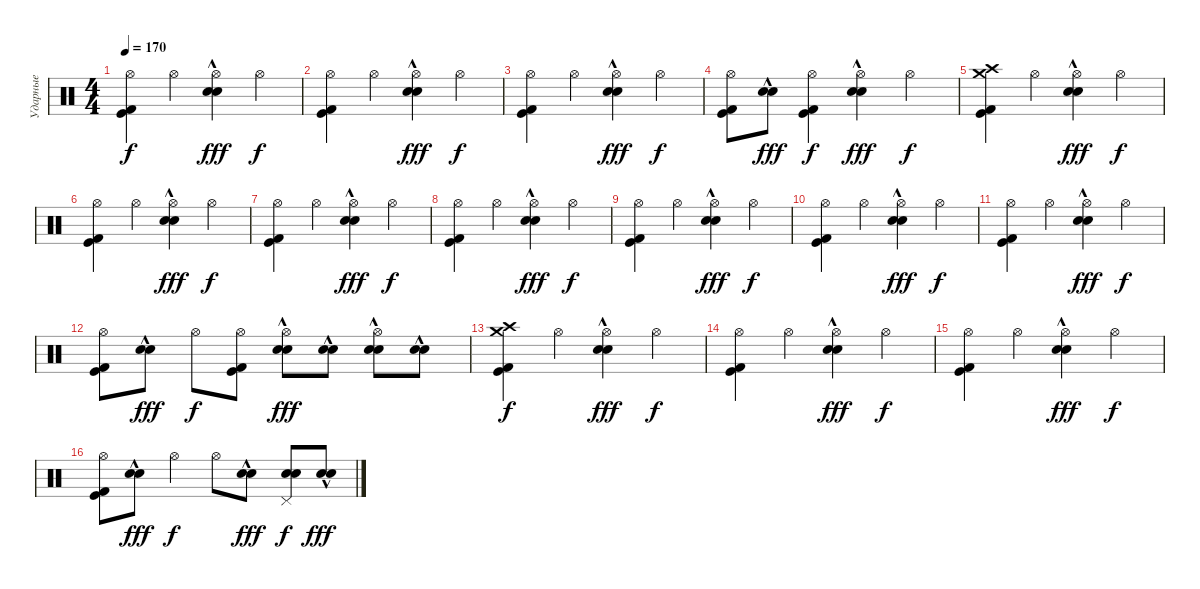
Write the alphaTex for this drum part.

\track ("Ударные" "Ударные") {instrument percussion}
\staff {score}
\articulation defaults
\ts (4 4)
\tempo 170
\clef neutral
\ks c
("Hi-Hat (open)" "Kick (hit)" "Kick (hit) 2").4{dy f} "Hi-Hat (open)".4 ("Hi-Hat (open)" "Snare (hit) 2"{hac} "Electric Snare (hit)"{hac}).4{dy fff} "Hi-Hat (open)".4{dy f} |
("Hi-Hat (open)" "Kick (hit)" "Kick (hit) 2").4 "Hi-Hat (open)".4 ("Hi-Hat (open)" "Snare (hit) 2"{hac} "Electric Snare (hit)"{hac}).4{dy fff} "Hi-Hat (open)".4{dy f} |
("Hi-Hat (open)" "Kick (hit)" "Kick (hit) 2").4 "Hi-Hat (open)".4 ("Hi-Hat (open)" "Snare (hit) 2"{hac} "Electric Snare (hit)"{hac}).4{dy fff} "Hi-Hat (open)".4{dy f} |
("Hi-Hat (open)" "Kick (hit)" "Kick (hit) 2").8 ("Snare (hit) 2"{hac} "Electric Snare (hit)"{hac}).8{dy fff} ("Hi-Hat (open)" "Kick (hit)" "Kick (hit) 2").4{dy f} ("Hi-Hat (open)" "Snare (hit) 2"{hac} "Electric Snare (hit)"{hac}).4{dy fff} "Hi-Hat (open)".4{dy f} |
("Crash high (hit)" "Kick (hit)" "Kick (hit) 2" "Crash medium (hit)").4 "Hi-Hat (open)".4 ("Hi-Hat (open)" "Snare (hit) 2"{hac} "Electric Snare (hit)"{hac}).4{dy fff} "Hi-Hat (open)".4{dy f} |
("Hi-Hat (open)" "Kick (hit)" "Kick (hit) 2").4 "Hi-Hat (open)".4 ("Hi-Hat (open)" "Snare (hit) 2"{hac} "Electric Snare (hit)"{hac}).4{dy fff} "Hi-Hat (open)".4{dy f} |
("Hi-Hat (open)" "Kick (hit)" "Kick (hit) 2").4 "Hi-Hat (open)".4 ("Hi-Hat (open)" "Snare (hit) 2"{hac} "Electric Snare (hit)"{hac}).4{dy fff} "Hi-Hat (open)".4{dy f} |
("Hi-Hat (open)" "Kick (hit)" "Kick (hit) 2").4 "Hi-Hat (open)".4 ("Hi-Hat (open)" "Snare (hit) 2"{hac} "Electric Snare (hit)"{hac}).4{dy fff} "Hi-Hat (open)".4{dy f} |
("Hi-Hat (open)" "Kick (hit)" "Kick (hit) 2").4 "Hi-Hat (open)".4 ("Hi-Hat (open)" "Snare (hit) 2"{hac} "Electric Snare (hit)"{hac}).4{dy fff} "Hi-Hat (open)".4{dy f} |
("Hi-Hat (open)" "Kick (hit)" "Kick (hit) 2").4 "Hi-Hat (open)".4 ("Hi-Hat (open)" "Snare (hit) 2"{hac} "Electric Snare (hit)"{hac}).4{dy fff} "Hi-Hat (open)".4{dy f} |
("Hi-Hat (open)" "Kick (hit)" "Kick (hit) 2").4 "Hi-Hat (open)".4 ("Hi-Hat (open)" "Snare (hit) 2"{hac} "Electric Snare (hit)"{hac}).4{dy fff} "Hi-Hat (open)".4{dy f} |
("Hi-Hat (open)" "Kick (hit)" "Kick (hit) 2").8 ("Snare (hit) 2"{hac} "Electric Snare (hit)"{hac}).8{dy fff} "Hi-Hat (open)".8{dy f} ("Hi-Hat (open)" "Kick (hit)" "Kick (hit) 2").8 ("Hi-Hat (open)" "Snare (hit) 2"{hac} "Electric Snare (hit)"{hac}).8{dy fff} ("Snare (hit) 2"{hac} "Electric Snare (hit)"{hac}).8 ("Hi-Hat (open)" "Snare (hit) 2"{hac} "Electric Snare (hit)"{hac}).8 ("Snare (hit) 2"{hac} "Electric Snare (hit)"{hac}).8 |
("Crash high (hit)" "Kick (hit)" "Kick (hit) 2" "Crash medium (hit)").4{dy f} "Hi-Hat (open)".4 ("Hi-Hat (open)" "Snare (hit) 2"{hac} "Electric Snare (hit)"{hac}).4{dy fff} "Hi-Hat (open)".4{dy f} |
("Hi-Hat (open)" "Kick (hit)" "Kick (hit) 2").4 "Hi-Hat (open)".4 ("Hi-Hat (open)" "Snare (hit) 2"{hac} "Electric Snare (hit)"{hac}).4{dy fff} "Hi-Hat (open)".4{dy f} |
("Hi-Hat (open)" "Kick (hit)" "Kick (hit) 2").4 "Hi-Hat (open)".4 ("Hi-Hat (open)" "Snare (hit) 2"{hac} "Electric Snare (hit)"{hac}).4{dy fff} "Hi-Hat (open)".4{dy f} |
("Hi-Hat (open)" "Kick (hit)" "Kick (hit) 2").8 ("Snare (hit) 2"{hac} "Electric Snare (hit)"{hac}).8{dy fff} "Hi-Hat (open)".4{dy f} "Hi-Hat (open)".8 ("Snare (hit) 2"{hac} "Electric Snare (hit)"{hac}).8{dy fff} ("Pedal Hi-Hat (hit)" "Snare (hit) 2" "Electric Snare (hit)").8{dy f} ("Snare (hit) 2"{hac} "Electric Snare (hit)"{hac}).8{dy fff}
